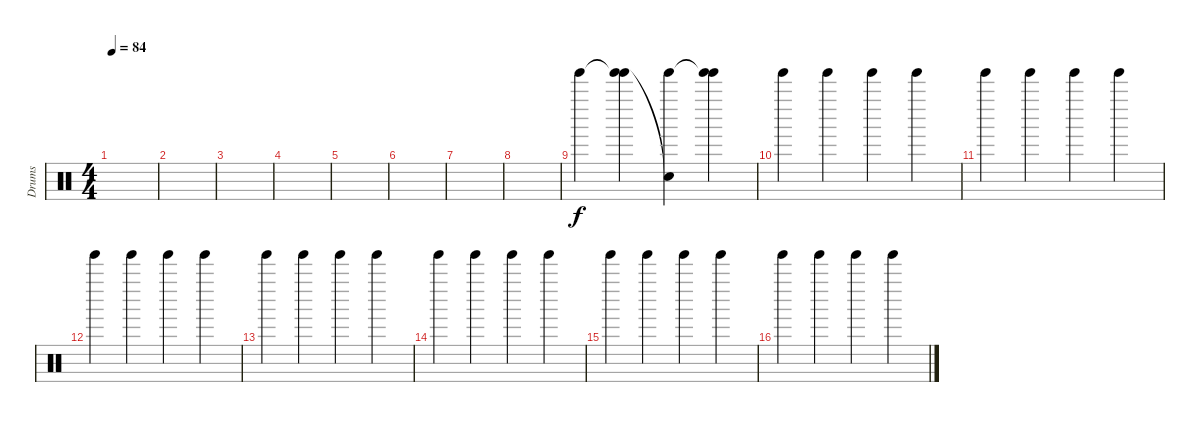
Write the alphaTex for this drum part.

\track ("Drums" "Drums") {instrument percussion}
\staff {score}
\articulation defaults
\ts (4 4)
\tempo 84
\clef neutral
\ks c
|
|
|
|
|
|
|
|
"Tinkle Bell (hit)".4{volume 2 balance 0} ("Tinkle Bell (hit)"{t} "Tinkle Bell (hit)").4 ("Tinkle Bell (hit)" "Snare (hit)"{t}).4 ("Tinkle Bell (hit)"{t} "Tinkle Bell (hit)").4 |
"Tinkle Bell (hit)".4 "Tinkle Bell (hit)".4 "Tinkle Bell (hit)".4 "Tinkle Bell (hit)".4 |
"Tinkle Bell (hit)".4 "Tinkle Bell (hit)".4 "Tinkle Bell (hit)".4 "Tinkle Bell (hit)".4 |
"Tinkle Bell (hit)".4 "Tinkle Bell (hit)".4 "Tinkle Bell (hit)".4 "Tinkle Bell (hit)".4 |
"Tinkle Bell (hit)".4 "Tinkle Bell (hit)".4 "Tinkle Bell (hit)".4 "Tinkle Bell (hit)".4 |
"Tinkle Bell (hit)".4 "Tinkle Bell (hit)".4 "Tinkle Bell (hit)".4 "Tinkle Bell (hit)".4 |
"Tinkle Bell (hit)".4 "Tinkle Bell (hit)".4 "Tinkle Bell (hit)".4 "Tinkle Bell (hit)".4 |
"Tinkle Bell (hit)".4 "Tinkle Bell (hit)".4 "Tinkle Bell (hit)".4 "Tinkle Bell (hit)".4
